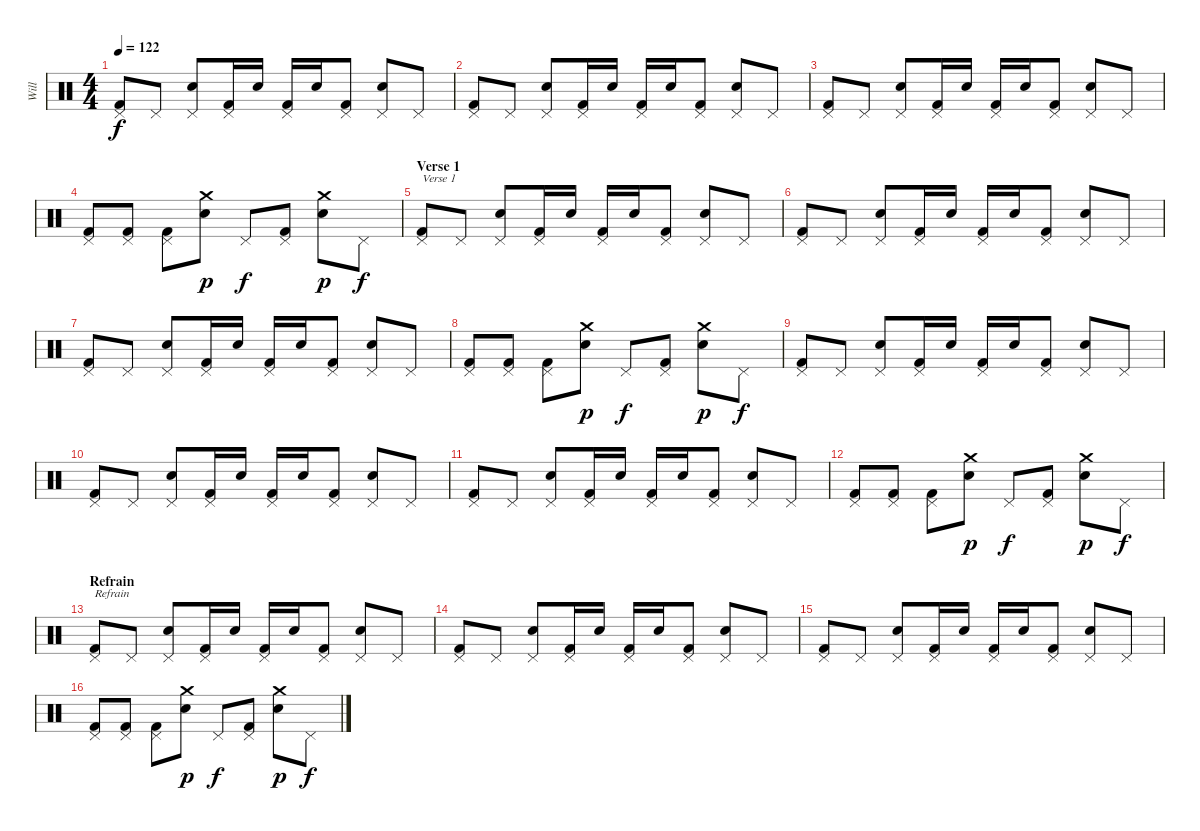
\track ("Will" "Will") {instrument percussion}
\staff {score}
\articulation defaults
\ts (4 4)
\tempo 122
\clef neutral
\ks c
("Pedal Hi-Hat (hit)" "Kick (hit) 2").8{dy f} "Pedal Hi-Hat (hit)".8 ("Pedal Hi-Hat (hit)" "Electric Snare (hit)").8 ("Pedal Hi-Hat (hit)" "Kick (hit) 2").16 "Electric Snare (hit)".16 ("Pedal Hi-Hat (hit)" "Kick (hit) 2").16 "Electric Snare (hit)".16 ("Pedal Hi-Hat (hit)" "Kick (hit) 2").8 ("Pedal Hi-Hat (hit)" "Electric Snare (hit)").8 "Pedal Hi-Hat (hit)".8 |
("Pedal Hi-Hat (hit)" "Kick (hit) 2").8 "Pedal Hi-Hat (hit)".8 ("Pedal Hi-Hat (hit)" "Electric Snare (hit)").8 ("Pedal Hi-Hat (hit)" "Kick (hit) 2").16 "Electric Snare (hit)".16 ("Pedal Hi-Hat (hit)" "Kick (hit) 2").16 "Electric Snare (hit)".16 ("Pedal Hi-Hat (hit)" "Kick (hit) 2").8 ("Pedal Hi-Hat (hit)" "Electric Snare (hit)").8 "Pedal Hi-Hat (hit)".8 |
("Pedal Hi-Hat (hit)" "Kick (hit) 2").8 "Pedal Hi-Hat (hit)".8 ("Pedal Hi-Hat (hit)" "Electric Snare (hit)").8 ("Pedal Hi-Hat (hit)" "Kick (hit) 2").16 "Electric Snare (hit)".16 ("Pedal Hi-Hat (hit)" "Kick (hit) 2").16 "Electric Snare (hit)".16 ("Pedal Hi-Hat (hit)" "Kick (hit) 2").8 ("Pedal Hi-Hat (hit)" "Electric Snare (hit)").8 "Pedal Hi-Hat (hit)".8 |
("Pedal Hi-Hat (hit)" "Kick (hit) 2").8 ("Pedal Hi-Hat (hit)" "Kick (hit) 2").8 ("Pedal Hi-Hat (hit)" "Kick (hit) 2").8 ("Crash medium (hit)" "Electric Snare (hit)").8{dy p} "Pedal Hi-Hat (hit)".8{dy f} ("Pedal Hi-Hat (hit)" "Kick (hit) 2").8 ("Crash medium (hit)" "Electric Snare (hit)").8{dy p} "Pedal Hi-Hat (hit)".8{dy f} |
\section ("" "Verse 1")
("Pedal Hi-Hat (hit)" "Kick (hit) 2").8{txt "Verse 1"} "Pedal Hi-Hat (hit)".8 ("Pedal Hi-Hat (hit)" "Electric Snare (hit)").8 ("Pedal Hi-Hat (hit)" "Kick (hit) 2").16 "Electric Snare (hit)".16 ("Pedal Hi-Hat (hit)" "Kick (hit) 2").16 "Electric Snare (hit)".16 ("Pedal Hi-Hat (hit)" "Kick (hit) 2").8 ("Pedal Hi-Hat (hit)" "Electric Snare (hit)").8 "Pedal Hi-Hat (hit)".8 |
("Pedal Hi-Hat (hit)" "Kick (hit) 2").8 "Pedal Hi-Hat (hit)".8 ("Pedal Hi-Hat (hit)" "Electric Snare (hit)").8 ("Pedal Hi-Hat (hit)" "Kick (hit) 2").16 "Electric Snare (hit)".16 ("Pedal Hi-Hat (hit)" "Kick (hit) 2").16 "Electric Snare (hit)".16 ("Pedal Hi-Hat (hit)" "Kick (hit) 2").8 ("Pedal Hi-Hat (hit)" "Electric Snare (hit)").8 "Pedal Hi-Hat (hit)".8 |
("Pedal Hi-Hat (hit)" "Kick (hit) 2").8 "Pedal Hi-Hat (hit)".8 ("Pedal Hi-Hat (hit)" "Electric Snare (hit)").8 ("Pedal Hi-Hat (hit)" "Kick (hit) 2").16 "Electric Snare (hit)".16 ("Pedal Hi-Hat (hit)" "Kick (hit) 2").16 "Electric Snare (hit)".16 ("Pedal Hi-Hat (hit)" "Kick (hit) 2").8 ("Pedal Hi-Hat (hit)" "Electric Snare (hit)").8 "Pedal Hi-Hat (hit)".8 |
("Pedal Hi-Hat (hit)" "Kick (hit) 2").8 ("Pedal Hi-Hat (hit)" "Kick (hit) 2").8 ("Pedal Hi-Hat (hit)" "Kick (hit) 2").8 ("Crash medium (hit)" "Electric Snare (hit)").8{dy p} "Pedal Hi-Hat (hit)".8{dy f} ("Pedal Hi-Hat (hit)" "Kick (hit) 2").8 ("Crash medium (hit)" "Electric Snare (hit)").8{dy p} "Pedal Hi-Hat (hit)".8{dy f} |
("Pedal Hi-Hat (hit)" "Kick (hit) 2").8 "Pedal Hi-Hat (hit)".8 ("Pedal Hi-Hat (hit)" "Electric Snare (hit)").8 ("Pedal Hi-Hat (hit)" "Kick (hit) 2").16 "Electric Snare (hit)".16 ("Pedal Hi-Hat (hit)" "Kick (hit) 2").16 "Electric Snare (hit)".16 ("Pedal Hi-Hat (hit)" "Kick (hit) 2").8 ("Pedal Hi-Hat (hit)" "Electric Snare (hit)").8 "Pedal Hi-Hat (hit)".8 |
("Pedal Hi-Hat (hit)" "Kick (hit) 2").8 "Pedal Hi-Hat (hit)".8 ("Pedal Hi-Hat (hit)" "Electric Snare (hit)").8 ("Pedal Hi-Hat (hit)" "Kick (hit) 2").16 "Electric Snare (hit)".16 ("Pedal Hi-Hat (hit)" "Kick (hit) 2").16 "Electric Snare (hit)".16 ("Pedal Hi-Hat (hit)" "Kick (hit) 2").8 ("Pedal Hi-Hat (hit)" "Electric Snare (hit)").8 "Pedal Hi-Hat (hit)".8 |
("Pedal Hi-Hat (hit)" "Kick (hit) 2").8 "Pedal Hi-Hat (hit)".8 ("Pedal Hi-Hat (hit)" "Electric Snare (hit)").8 ("Pedal Hi-Hat (hit)" "Kick (hit) 2").16 "Electric Snare (hit)".16 ("Pedal Hi-Hat (hit)" "Kick (hit) 2").16 "Electric Snare (hit)".16 ("Pedal Hi-Hat (hit)" "Kick (hit) 2").8 ("Pedal Hi-Hat (hit)" "Electric Snare (hit)").8 "Pedal Hi-Hat (hit)".8 |
("Pedal Hi-Hat (hit)" "Kick (hit) 2").8 ("Pedal Hi-Hat (hit)" "Kick (hit) 2").8 ("Pedal Hi-Hat (hit)" "Kick (hit) 2").8 ("Crash medium (hit)" "Electric Snare (hit)").8{dy p} "Pedal Hi-Hat (hit)".8{dy f} ("Pedal Hi-Hat (hit)" "Kick (hit) 2").8 ("Crash medium (hit)" "Electric Snare (hit)").8{dy p} "Pedal Hi-Hat (hit)".8{dy f} |
\section ("" "Refrain")
("Pedal Hi-Hat (hit)" "Kick (hit) 2").8{txt "Refrain"} "Pedal Hi-Hat (hit)".8 ("Pedal Hi-Hat (hit)" "Electric Snare (hit)").8 ("Pedal Hi-Hat (hit)" "Kick (hit) 2").16 "Electric Snare (hit)".16 ("Pedal Hi-Hat (hit)" "Kick (hit) 2").16 "Electric Snare (hit)".16 ("Pedal Hi-Hat (hit)" "Kick (hit) 2").8 ("Pedal Hi-Hat (hit)" "Electric Snare (hit)").8 "Pedal Hi-Hat (hit)".8 |
("Pedal Hi-Hat (hit)" "Kick (hit) 2").8 "Pedal Hi-Hat (hit)".8 ("Pedal Hi-Hat (hit)" "Electric Snare (hit)").8 ("Pedal Hi-Hat (hit)" "Kick (hit) 2").16 "Electric Snare (hit)".16 ("Pedal Hi-Hat (hit)" "Kick (hit) 2").16 "Electric Snare (hit)".16 ("Pedal Hi-Hat (hit)" "Kick (hit) 2").8 ("Pedal Hi-Hat (hit)" "Electric Snare (hit)").8 "Pedal Hi-Hat (hit)".8 |
("Pedal Hi-Hat (hit)" "Kick (hit) 2").8 "Pedal Hi-Hat (hit)".8 ("Pedal Hi-Hat (hit)" "Electric Snare (hit)").8 ("Pedal Hi-Hat (hit)" "Kick (hit) 2").16 "Electric Snare (hit)".16 ("Pedal Hi-Hat (hit)" "Kick (hit) 2").16 "Electric Snare (hit)".16 ("Pedal Hi-Hat (hit)" "Kick (hit) 2").8 ("Pedal Hi-Hat (hit)" "Electric Snare (hit)").8 "Pedal Hi-Hat (hit)".8 |
("Pedal Hi-Hat (hit)" "Kick (hit) 2").8 ("Pedal Hi-Hat (hit)" "Kick (hit) 2").8 ("Pedal Hi-Hat (hit)" "Kick (hit) 2").8 ("Crash medium (hit)" "Electric Snare (hit)").8{dy p} "Pedal Hi-Hat (hit)".8{dy f} ("Pedal Hi-Hat (hit)" "Kick (hit) 2").8 ("Crash medium (hit)" "Electric Snare (hit)").8{dy p} "Pedal Hi-Hat (hit)".8{dy f}
